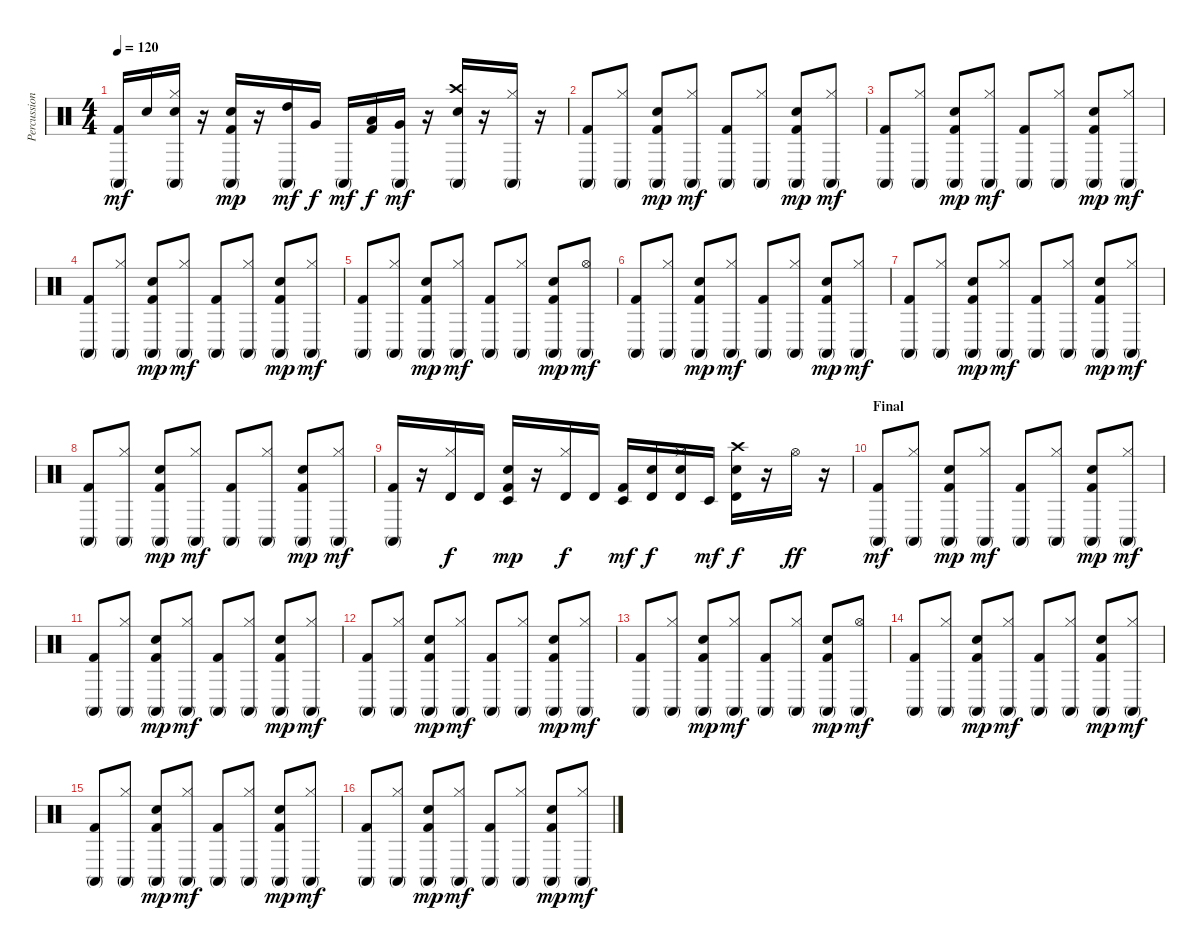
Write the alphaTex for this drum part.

\track ("Percussions" "Percussion") {instrument percussion}
\staff {score}
\articulation defaults
\ts (4 4)
\tempo 120
\clef neutral
\ks c
("Conga high (mute)" "Kick (hit) 2").16{dy mf} "Electric Snare (hit)".16 ("Hi-Hat (closed)" "Conga high (mute)" "Electric Snare (hit)").16 r.16 ("Conga high (mute)" "Electric Snare (hit)" "Kick (hit) 2").16{dy mp} r.16 ("Conga high (mute)" "High Tom (hit)").16{dy mf} "Very Low Tom (hit)".16{dy f} "Conga high (mute)".16{dy mf} ("Low Tom (hit)" "Kick (hit) 2").16{dy f} ("Conga high (mute)" "Very Low Tom (hit)").16{dy mf} r.16 ("Crash high (hit)" "Conga high (mute)" "Electric Snare (hit)").16 r.16 ("Hi-Hat (closed)" "Conga high (mute)").16 r.16 |
("Conga high (mute)" "Kick (hit) 2").8 ("Hi-Hat (closed)" "Conga high (mute)").8 ("Conga high (mute)" "Electric Snare (hit)" "Kick (hit) 2").8{dy mp} ("Hi-Hat (closed)" "Conga high (mute)").8{dy mf} ("Conga high (mute)" "Kick (hit) 2").8 ("Hi-Hat (closed)" "Conga high (mute)").8 ("Conga high (mute)" "Electric Snare (hit)" "Kick (hit) 2").8{dy mp} ("Hi-Hat (closed)" "Conga high (mute)").8{dy mf} |
("Conga high (mute)" "Kick (hit) 2").8 ("Hi-Hat (closed)" "Conga high (mute)").8 ("Conga high (mute)" "Electric Snare (hit)" "Kick (hit) 2").8{dy mp} ("Hi-Hat (closed)" "Conga high (mute)").8{dy mf} ("Conga high (mute)" "Kick (hit) 2").8 ("Hi-Hat (closed)" "Conga high (mute)").8 ("Conga high (mute)" "Electric Snare (hit)" "Kick (hit) 2").8{dy mp} ("Hi-Hat (closed)" "Conga high (mute)").8{dy mf} |
("Conga high (mute)" "Kick (hit) 2").8 ("Hi-Hat (closed)" "Conga high (mute)").8 ("Conga high (mute)" "Electric Snare (hit)" "Kick (hit) 2").8{dy mp} ("Hi-Hat (closed)" "Conga high (mute)").8{dy mf} ("Conga high (mute)" "Kick (hit) 2").8 ("Hi-Hat (closed)" "Conga high (mute)").8 ("Conga high (mute)" "Electric Snare (hit)" "Kick (hit) 2").8{dy mp} ("Hi-Hat (closed)" "Conga high (mute)").8{dy mf} |
("Conga high (mute)" "Kick (hit) 2").8 ("Hi-Hat (closed)" "Conga high (mute)").8 ("Conga high (mute)" "Electric Snare (hit)" "Kick (hit) 2").8{dy mp} ("Hi-Hat (closed)" "Conga high (mute)").8{dy mf} ("Conga high (mute)" "Kick (hit) 2").8 ("Hi-Hat (closed)" "Conga high (mute)").8 ("Conga high (mute)" "Electric Snare (hit)" "Kick (hit) 2").8{dy mp} ("Hi-Hat (open)" "Conga high (mute)").8{dy mf} |
("Conga high (mute)" "Kick (hit) 2").8 ("Hi-Hat (closed)" "Conga high (mute)").8 ("Conga high (mute)" "Electric Snare (hit)" "Kick (hit) 2").8{dy mp} ("Hi-Hat (closed)" "Conga high (mute)").8{dy mf} ("Conga high (mute)" "Kick (hit) 2").8 ("Hi-Hat (closed)" "Conga high (mute)").8 ("Conga high (mute)" "Electric Snare (hit)" "Kick (hit) 2").8{dy mp} ("Hi-Hat (closed)" "Conga high (mute)").8{dy mf} |
("Conga high (mute)" "Kick (hit) 2").8 ("Hi-Hat (closed)" "Conga high (mute)").8 ("Conga high (mute)" "Electric Snare (hit)" "Kick (hit) 2").8{dy mp} ("Hi-Hat (closed)" "Conga high (mute)").8{dy mf} ("Conga high (mute)" "Kick (hit) 2").8 ("Hi-Hat (closed)" "Conga high (mute)").8 ("Conga high (mute)" "Electric Snare (hit)" "Kick (hit) 2").8{dy mp} ("Hi-Hat (closed)" "Conga high (mute)").8{dy mf} |
("Conga high (mute)" "Kick (hit) 2").8 ("Hi-Hat (closed)" "Conga high (mute)").8 ("Conga high (mute)" "Electric Snare (hit)" "Kick (hit) 2").8{dy mp} ("Hi-Hat (closed)" "Conga high (mute)").8{dy mf} ("Conga high (mute)" "Kick (hit) 2").8 ("Hi-Hat (closed)" "Conga high (mute)").8 ("Conga high (mute)" "Electric Snare (hit)" "Kick (hit) 2").8{dy mp} ("Hi-Hat (closed)" "Conga high (mute)").8{dy mf} |
("Conga high (mute)" "Kick (hit) 2").16 r.16 ("Hi-Hat (closed)" "Timbale high (hit)").16{dy f} "Timbale high (hit)".16 ("Timbale low (hit)" "Electric Snare (hit)" "Kick (hit) 2").16{dy mp} r.16 ("Hi-Hat (closed)" "Timbale high (hit)").16{dy f} "Timbale high (hit)".16 ("Timbale low (hit)" "Kick (hit) 2").16{dy mf} ("Timbale high (hit)" "Electric Snare (hit)").16{dy f} ("Hi-Hat (closed)" "Timbale high (hit)" "Electric Snare (hit)").16 "Timbale low (hit)".16{dy mf} ("Crash high (hit)" "Timbale high (hit)" "Electric Snare (hit)").16{dy f} r.16 "Hi-Hat (open)".16{dy ff} r.16 |
\section ("" "Final")
("Conga high (mute)" "Kick (hit) 2").8{dy mf} ("Hi-Hat (closed)" "Conga high (mute)").8 ("Conga high (mute)" "Electric Snare (hit)" "Kick (hit) 2").8{dy mp} ("Hi-Hat (closed)" "Conga high (mute)").8{dy mf} ("Conga high (mute)" "Kick (hit) 2").8 ("Hi-Hat (closed)" "Conga high (mute)").8 ("Conga high (mute)" "Electric Snare (hit)" "Kick (hit) 2").8{dy mp} ("Hi-Hat (closed)" "Conga high (mute)").8{dy mf} |
("Conga high (mute)" "Kick (hit) 2").8 ("Hi-Hat (closed)" "Conga high (mute)").8 ("Conga high (mute)" "Electric Snare (hit)" "Kick (hit) 2").8{dy mp} ("Hi-Hat (closed)" "Conga high (mute)").8{dy mf} ("Conga high (mute)" "Kick (hit) 2").8 ("Hi-Hat (closed)" "Conga high (mute)").8 ("Conga high (mute)" "Electric Snare (hit)" "Kick (hit) 2").8{dy mp} ("Hi-Hat (closed)" "Conga high (mute)").8{dy mf} |
("Conga high (mute)" "Kick (hit) 2").8 ("Hi-Hat (closed)" "Conga high (mute)").8 ("Conga high (mute)" "Electric Snare (hit)" "Kick (hit) 2").8{dy mp} ("Hi-Hat (closed)" "Conga high (mute)").8{dy mf} ("Conga high (mute)" "Kick (hit) 2").8 ("Hi-Hat (closed)" "Conga high (mute)").8 ("Conga high (mute)" "Electric Snare (hit)" "Kick (hit) 2").8{dy mp} ("Hi-Hat (closed)" "Conga high (mute)").8{dy mf} |
("Conga high (mute)" "Kick (hit) 2").8 ("Hi-Hat (closed)" "Conga high (mute)").8 ("Conga high (mute)" "Electric Snare (hit)" "Kick (hit) 2").8{dy mp} ("Hi-Hat (closed)" "Conga high (mute)").8{dy mf} ("Conga high (mute)" "Kick (hit) 2").8 ("Hi-Hat (closed)" "Conga high (mute)").8 ("Conga high (mute)" "Electric Snare (hit)" "Kick (hit) 2").8{dy mp} ("Hi-Hat (open)" "Conga high (mute)").8{dy mf} |
("Conga high (mute)" "Kick (hit) 2").8 ("Hi-Hat (closed)" "Conga high (mute)").8 ("Conga high (mute)" "Electric Snare (hit)" "Kick (hit) 2").8{dy mp} ("Hi-Hat (closed)" "Conga high (mute)").8{dy mf} ("Conga high (mute)" "Kick (hit) 2").8 ("Hi-Hat (closed)" "Conga high (mute)").8 ("Conga high (mute)" "Electric Snare (hit)" "Kick (hit) 2").8{dy mp} ("Hi-Hat (closed)" "Conga high (mute)").8{dy mf} |
("Conga high (mute)" "Kick (hit) 2").8 ("Hi-Hat (closed)" "Conga high (mute)").8 ("Conga high (mute)" "Electric Snare (hit)" "Kick (hit) 2").8{dy mp} ("Hi-Hat (closed)" "Conga high (mute)").8{dy mf} ("Conga high (mute)" "Kick (hit) 2").8 ("Hi-Hat (closed)" "Conga high (mute)").8 ("Conga high (mute)" "Electric Snare (hit)" "Kick (hit) 2").8{dy mp} ("Hi-Hat (closed)" "Conga high (mute)").8{dy mf} |
("Conga high (mute)" "Kick (hit) 2").8 ("Hi-Hat (closed)" "Conga high (mute)").8 ("Conga high (mute)" "Electric Snare (hit)" "Kick (hit) 2").8{dy mp} ("Hi-Hat (closed)" "Conga high (mute)").8{dy mf} ("Conga high (mute)" "Kick (hit) 2").8 ("Hi-Hat (closed)" "Conga high (mute)").8 ("Conga high (mute)" "Electric Snare (hit)" "Kick (hit) 2").8{dy mp} ("Hi-Hat (closed)" "Conga high (mute)").8{dy mf}
